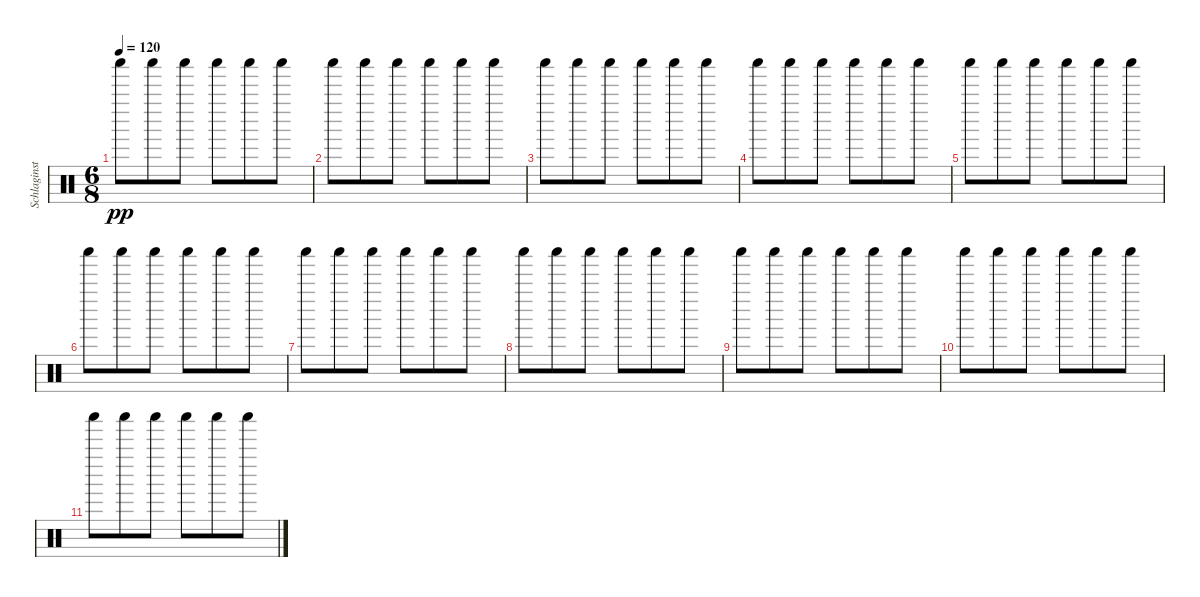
\track ("Schlaginstrumente - Auswahl" "Schlaginst") {instrument percussion}
\staff {score}
\articulation defaults
\ts (6 8)
\tempo 120
\clef neutral
\ks c "Shaker (hit)".8{dy pp} "Shaker (hit)".8 "Shaker (hit)".8 "Shaker (hit)".8 "Shaker (hit)".8 "Shaker (hit)".8
|
"Shaker (hit)".8 "Shaker (hit)".8 "Shaker (hit)".8 "Shaker (hit)".8 "Shaker (hit)".8 "Shaker (hit)".8 |
"Shaker (hit)".8 "Shaker (hit)".8 "Shaker (hit)".8 "Shaker (hit)".8 "Shaker (hit)".8 "Shaker (hit)".8 |
"Shaker (hit)".8 "Shaker (hit)".8 "Shaker (hit)".8 "Shaker (hit)".8 "Shaker (hit)".8 "Shaker (hit)".8 |
"Shaker (hit)".8 "Shaker (hit)".8 "Shaker (hit)".8 "Shaker (hit)".8 "Shaker (hit)".8 "Shaker (hit)".8 |
"Shaker (hit)".8 "Shaker (hit)".8 "Shaker (hit)".8 "Shaker (hit)".8 "Shaker (hit)".8 "Shaker (hit)".8 |
"Shaker (hit)".8 "Shaker (hit)".8 "Shaker (hit)".8 "Shaker (hit)".8 "Shaker (hit)".8 "Shaker (hit)".8 |
"Shaker (hit)".8 "Shaker (hit)".8 "Shaker (hit)".8 "Shaker (hit)".8 "Shaker (hit)".8 "Shaker (hit)".8 |
"Shaker (hit)".8 "Shaker (hit)".8 "Shaker (hit)".8 "Shaker (hit)".8 "Shaker (hit)".8 "Shaker (hit)".8 |
"Shaker (hit)".8 "Shaker (hit)".8 "Shaker (hit)".8 "Shaker (hit)".8 "Shaker (hit)".8 "Shaker (hit)".8 |
"Shaker (hit)".8 "Shaker (hit)".8 "Shaker (hit)".8 "Shaker (hit)".8 "Shaker (hit)".8 "Shaker (hit)".8
